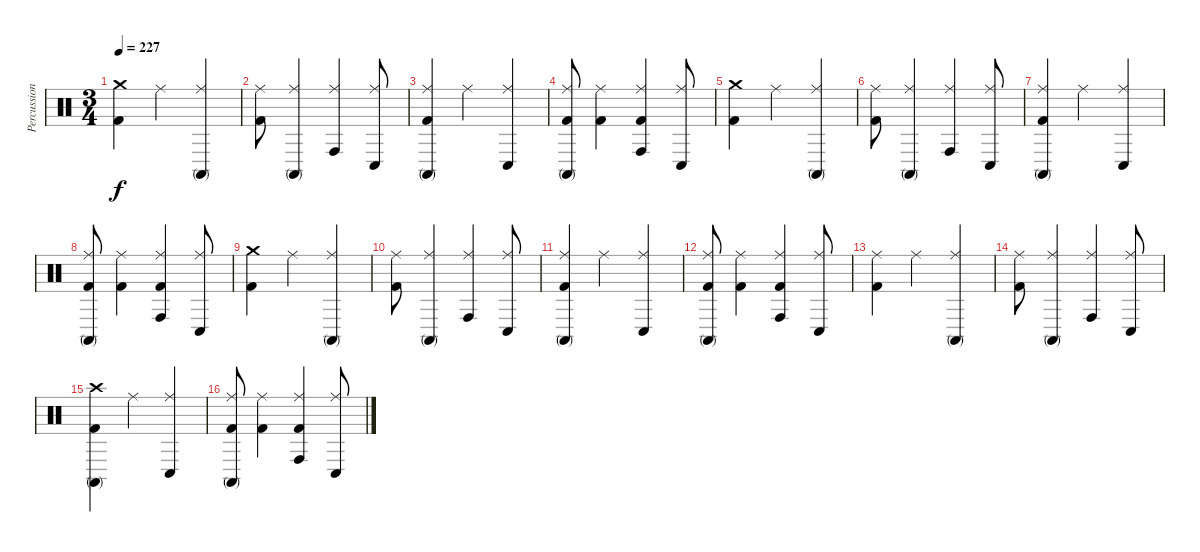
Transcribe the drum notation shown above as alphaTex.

\track ("Percussion" "Percussion") {instrument percussion}
\staff {score}
\articulation defaults
\ts (3 4)
\tempo 227
\clef neutral
\ks c
("Crash medium (hit)" "Kick (hit) 2").4{dy f} "Ride (middle)".4 ("Ride (middle)" "Conga high (mute)").4 |
("Ride (middle)" "Kick (hit) 2").8 ("Ride (middle)" "Conga high (mute)").4 ("Ride (middle)" "Conga high (hit)").4 ("Ride (middle)" "Conga low (hit)").8 |
("Ride (middle)" "Conga high (mute)" "Kick (hit) 2").4 "Ride (middle)".4 ("Ride (middle)" "Conga low (hit)").4 |
("Ride (middle)" "Conga high (mute)" "Kick (hit) 2").8 ("Ride (middle)" "Kick (hit) 2").4 ("Ride (middle)" "Conga high (hit)" "Kick (hit) 2").4 ("Ride (middle)" "Conga low (hit)").8 |
("Crash medium (hit)" "Kick (hit) 2").4 "Ride (middle)".4 ("Ride (middle)" "Conga high (mute)").4 |
("Ride (middle)" "Kick (hit) 2").8 ("Ride (middle)" "Conga high (mute)").4 ("Ride (middle)" "Conga high (hit)").4 ("Ride (middle)" "Conga low (hit)").8 |
("Ride (middle)" "Conga high (mute)" "Kick (hit) 2").4 "Ride (middle)".4 ("Ride (middle)" "Conga low (hit)").4 |
("Ride (middle)" "Conga high (mute)" "Kick (hit) 2").8 ("Ride (middle)" "Kick (hit) 2").4 ("Ride (middle)" "Conga high (hit)" "Kick (hit) 2").4 ("Ride (middle)" "Conga low (hit)").8 |
("Crash medium (hit)" "Kick (hit) 2").4 "Ride (middle)".4 ("Ride (middle)" "Conga high (mute)").4 |
("Ride (middle)" "Kick (hit) 2").8 ("Ride (middle)" "Conga high (mute)").4 ("Ride (middle)" "Conga high (hit)").4 ("Ride (middle)" "Conga low (hit)").8 |
("Ride (middle)" "Conga high (mute)" "Kick (hit) 2").4 "Ride (middle)".4 ("Ride (middle)" "Conga low (hit)").4 |
("Ride (middle)" "Conga high (mute)" "Kick (hit) 2").8 ("Ride (middle)" "Kick (hit) 2").4 ("Ride (middle)" "Conga high (hit)" "Kick (hit) 2").4 ("Ride (middle)" "Conga low (hit)").8 |
("Ride (middle)" "Kick (hit) 2").4 "Ride (middle)".4 ("Ride (middle)" "Conga high (mute)").4 |
("Ride (middle)" "Kick (hit) 2").8 ("Ride (middle)" "Conga high (mute)").4 ("Ride (middle)" "Conga high (hit)").4 ("Ride (middle)" "Conga low (hit)").8 |
("Crash high (hit)" "Conga high (mute)" "Kick (hit) 2").4 "Ride (middle)".4 ("Ride (middle)" "Conga low (hit)").4 |
("Ride (middle)" "Conga high (mute)" "Kick (hit) 2").8 ("Ride (middle)" "Kick (hit) 2").4 ("Ride (middle)" "Conga high (hit)" "Kick (hit) 2").4 ("Ride (middle)" "Conga low (hit)").8
